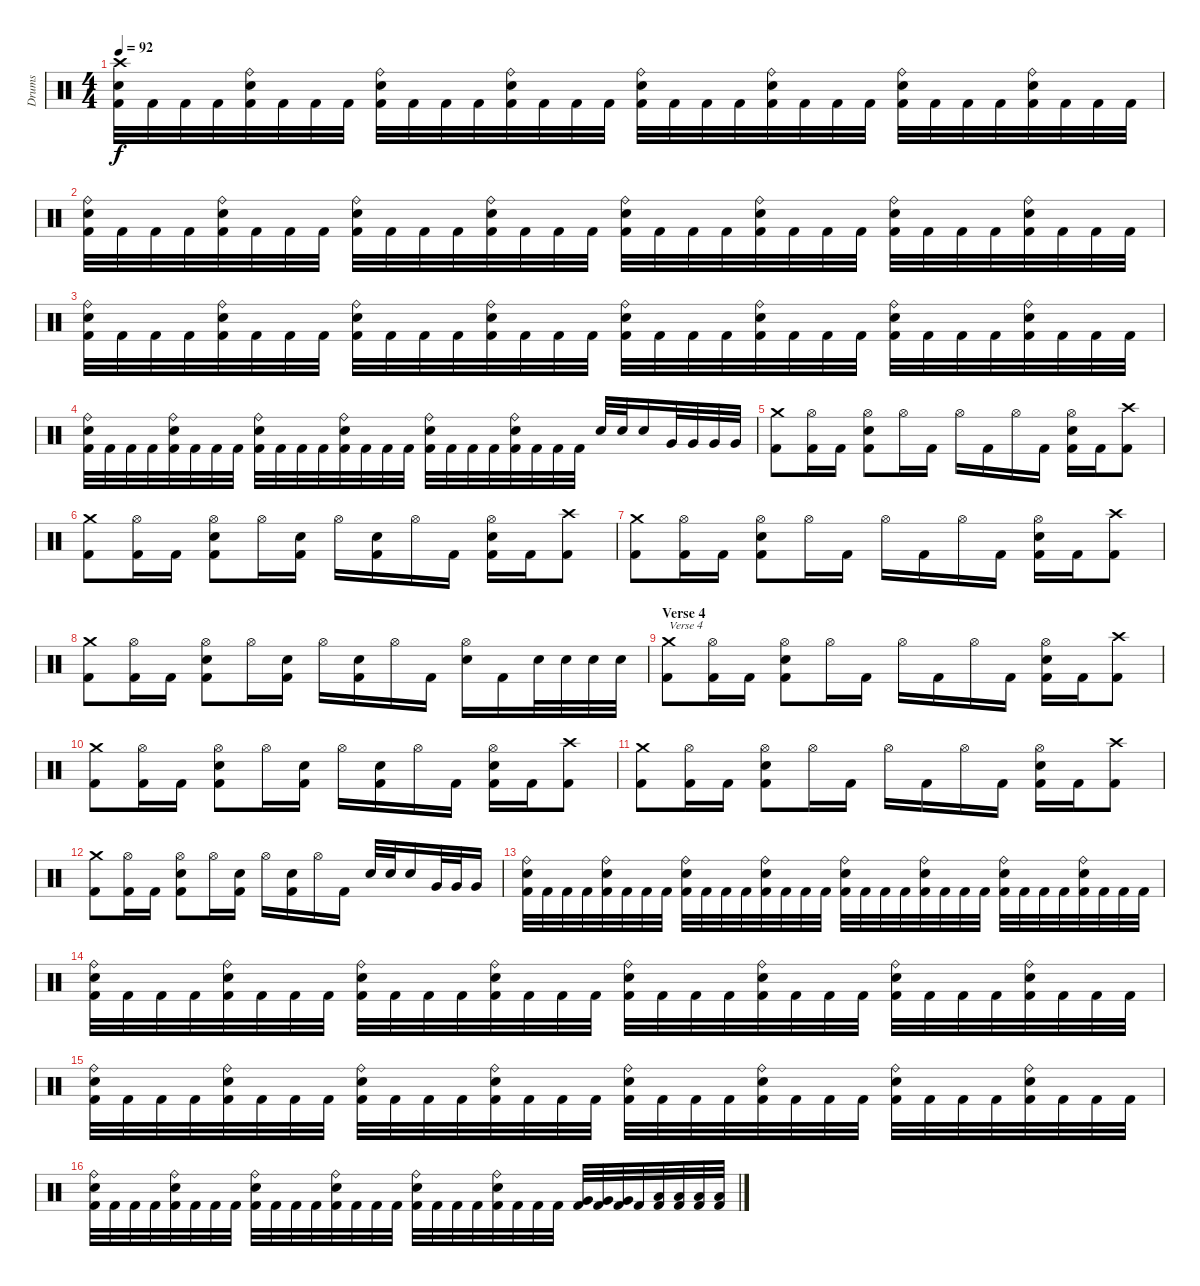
\track ("Drums" "Drums") {instrument percussion}
\staff {score}
\articulation defaults
\ts (4 4)
\tempo 92
\clef neutral
\ks c
("Crash high (hit)" "Electric Snare (hit)" "Kick (hit) 2").32{dy f} "Kick (hit) 2".32 "Kick (hit) 2".32 "Kick (hit) 2".32 ("Ride (bell)" "Electric Snare (hit)" "Kick (hit) 2").32 "Kick (hit) 2".32 "Kick (hit) 2".32 "Kick (hit) 2".32 ("Ride (bell)" "Electric Snare (hit)" "Kick (hit) 2").32 "Kick (hit) 2".32 "Kick (hit) 2".32 "Kick (hit) 2".32 ("Ride (bell)" "Electric Snare (hit)" "Kick (hit) 2").32 "Kick (hit) 2".32 "Kick (hit) 2".32 "Kick (hit) 2".32 ("Ride (bell)" "Electric Snare (hit)" "Kick (hit) 2").32 "Kick (hit) 2".32 "Kick (hit) 2".32 "Kick (hit) 2".32 ("Ride (bell)" "Electric Snare (hit)" "Kick (hit) 2").32 "Kick (hit) 2".32 "Kick (hit) 2".32 "Kick (hit) 2".32 ("Ride (bell)" "Electric Snare (hit)" "Kick (hit) 2").32 "Kick (hit) 2".32 "Kick (hit) 2".32 "Kick (hit) 2".32 ("Ride (bell)" "Electric Snare (hit)" "Kick (hit) 2").32 "Kick (hit) 2".32 "Kick (hit) 2".32 "Kick (hit) 2".32 |
("Ride (bell)" "Electric Snare (hit)" "Kick (hit) 2").32 "Kick (hit) 2".32 "Kick (hit) 2".32 "Kick (hit) 2".32 ("Ride (bell)" "Electric Snare (hit)" "Kick (hit) 2").32 "Kick (hit) 2".32 "Kick (hit) 2".32 "Kick (hit) 2".32 ("Ride (bell)" "Electric Snare (hit)" "Kick (hit) 2").32 "Kick (hit) 2".32 "Kick (hit) 2".32 "Kick (hit) 2".32 ("Ride (bell)" "Electric Snare (hit)" "Kick (hit) 2").32 "Kick (hit) 2".32 "Kick (hit) 2".32 "Kick (hit) 2".32 ("Ride (bell)" "Electric Snare (hit)" "Kick (hit) 2").32 "Kick (hit) 2".32 "Kick (hit) 2".32 "Kick (hit) 2".32 ("Ride (bell)" "Electric Snare (hit)" "Kick (hit) 2").32 "Kick (hit) 2".32 "Kick (hit) 2".32 "Kick (hit) 2".32 ("Ride (bell)" "Electric Snare (hit)" "Kick (hit) 2").32 "Kick (hit) 2".32 "Kick (hit) 2".32 "Kick (hit) 2".32 ("Ride (bell)" "Electric Snare (hit)" "Kick (hit) 2").32 "Kick (hit) 2".32 "Kick (hit) 2".32 "Kick (hit) 2".32 |
("Ride (bell)" "Electric Snare (hit)" "Kick (hit) 2").32 "Kick (hit) 2".32 "Kick (hit) 2".32 "Kick (hit) 2".32 ("Ride (bell)" "Electric Snare (hit)" "Kick (hit) 2").32 "Kick (hit) 2".32 "Kick (hit) 2".32 "Kick (hit) 2".32 ("Ride (bell)" "Electric Snare (hit)" "Kick (hit) 2").32 "Kick (hit) 2".32 "Kick (hit) 2".32 "Kick (hit) 2".32 ("Ride (bell)" "Electric Snare (hit)" "Kick (hit) 2").32 "Kick (hit) 2".32 "Kick (hit) 2".32 "Kick (hit) 2".32 ("Ride (bell)" "Electric Snare (hit)" "Kick (hit) 2").32 "Kick (hit) 2".32 "Kick (hit) 2".32 "Kick (hit) 2".32 ("Ride (bell)" "Electric Snare (hit)" "Kick (hit) 2").32 "Kick (hit) 2".32 "Kick (hit) 2".32 "Kick (hit) 2".32 ("Ride (bell)" "Electric Snare (hit)" "Kick (hit) 2").32 "Kick (hit) 2".32 "Kick (hit) 2".32 "Kick (hit) 2".32 ("Ride (bell)" "Electric Snare (hit)" "Kick (hit) 2").32 "Kick (hit) 2".32 "Kick (hit) 2".32 "Kick (hit) 2".32 |
("Ride (bell)" "Electric Snare (hit)" "Kick (hit) 2").32 "Kick (hit) 2".32 "Kick (hit) 2".32 "Kick (hit) 2".32 ("Ride (bell)" "Electric Snare (hit)" "Kick (hit) 2").32 "Kick (hit) 2".32 "Kick (hit) 2".32 "Kick (hit) 2".32 ("Ride (bell)" "Electric Snare (hit)" "Kick (hit) 2").32 "Kick (hit) 2".32 "Kick (hit) 2".32 "Kick (hit) 2".32 ("Ride (bell)" "Electric Snare (hit)" "Kick (hit) 2").32 "Kick (hit) 2".32 "Kick (hit) 2".32 "Kick (hit) 2".32 ("Ride (bell)" "Electric Snare (hit)" "Kick (hit) 2").32 "Kick (hit) 2".32 "Kick (hit) 2".32 "Kick (hit) 2".32 ("Ride (bell)" "Electric Snare (hit)" "Kick (hit) 2").32 "Kick (hit) 2".32 "Kick (hit) 2".32 "Kick (hit) 2".32 "Electric Snare (hit)".32 "Electric Snare (hit)".32 "Electric Snare (hit)".16 "Very Low Tom (hit)".32 "Very Low Tom (hit)".32 "Very Low Tom (hit)".32 "Very Low Tom (hit)".32 |
("Crash medium (hit)" "Kick (hit) 2").8 ("Hi-Hat (open)" "Kick (hit) 2").16 "Kick (hit) 2".16 ("Hi-Hat (open)" "Electric Snare (hit)" "Kick (hit) 2").8 "Hi-Hat (open)".16 "Kick (hit) 2".16 "Hi-Hat (open)".16 "Kick (hit) 2".16 "Hi-Hat (open)".16 "Kick (hit) 2".16 ("Hi-Hat (open)" "Electric Snare (hit)" "Kick (hit) 2").16 "Kick (hit) 2".16 ("Crash high (hit)" "Kick (hit) 2").8 |
("Crash medium (hit)" "Kick (hit) 2").8 ("Hi-Hat (open)" "Kick (hit) 2").16 "Kick (hit) 2".16 ("Hi-Hat (open)" "Electric Snare (hit)" "Kick (hit) 2").8 "Hi-Hat (open)".16 ("Electric Snare (hit)" "Kick (hit) 2").16 "Hi-Hat (open)".16 ("Electric Snare (hit)" "Kick (hit) 2").16 "Hi-Hat (open)".16 "Kick (hit) 2".16 ("Hi-Hat (open)" "Electric Snare (hit)" "Kick (hit) 2").16 "Kick (hit) 2".16 ("Crash high (hit)" "Kick (hit) 2").8 |
("Crash medium (hit)" "Kick (hit) 2").8 ("Hi-Hat (open)" "Kick (hit) 2").16 "Kick (hit) 2".16 ("Hi-Hat (open)" "Electric Snare (hit)" "Kick (hit) 2").8 "Hi-Hat (open)".16 "Kick (hit) 2".16 "Hi-Hat (open)".16 "Kick (hit) 2".16 "Hi-Hat (open)".16 "Kick (hit) 2".16 ("Hi-Hat (open)" "Electric Snare (hit)" "Kick (hit) 2").16 "Kick (hit) 2".16 ("Crash high (hit)" "Kick (hit) 2").8 |
("Crash medium (hit)" "Kick (hit) 2").8 ("Hi-Hat (open)" "Kick (hit) 2").16 "Kick (hit) 2".16 ("Hi-Hat (open)" "Electric Snare (hit)" "Kick (hit) 2").8 "Hi-Hat (open)".16 ("Electric Snare (hit)" "Kick (hit) 2").16 "Hi-Hat (open)".16 ("Electric Snare (hit)" "Kick (hit) 2").16 "Hi-Hat (open)".16 "Kick (hit) 2".16 ("Hi-Hat (open)" "Electric Snare (hit)").16 "Kick (hit) 2".16 "Electric Snare (hit)".32 "Electric Snare (hit)".32 "Electric Snare (hit)".32 "Electric Snare (hit)".32 |
\section ("" "Verse 4")
("Crash medium (hit)" "Kick (hit) 2").8{txt "Verse 4"} ("Hi-Hat (open)" "Kick (hit) 2").16 "Kick (hit) 2".16 ("Hi-Hat (open)" "Electric Snare (hit)" "Kick (hit) 2").8 "Hi-Hat (open)".16 "Kick (hit) 2".16 "Hi-Hat (open)".16 "Kick (hit) 2".16 "Hi-Hat (open)".16 "Kick (hit) 2".16 ("Hi-Hat (open)" "Electric Snare (hit)" "Kick (hit) 2").16 "Kick (hit) 2".16 ("Crash high (hit)" "Kick (hit) 2").8 |
("Crash medium (hit)" "Kick (hit) 2").8 ("Hi-Hat (open)" "Kick (hit) 2").16 "Kick (hit) 2".16 ("Hi-Hat (open)" "Electric Snare (hit)" "Kick (hit) 2").8 "Hi-Hat (open)".16 ("Electric Snare (hit)" "Kick (hit) 2").16 "Hi-Hat (open)".16 ("Electric Snare (hit)" "Kick (hit) 2").16 "Hi-Hat (open)".16 "Kick (hit) 2".16 ("Hi-Hat (open)" "Electric Snare (hit)" "Kick (hit) 2").16 "Kick (hit) 2".16 ("Crash high (hit)" "Kick (hit) 2").8 |
("Crash medium (hit)" "Kick (hit) 2").8 ("Hi-Hat (open)" "Kick (hit) 2").16 "Kick (hit) 2".16 ("Hi-Hat (open)" "Electric Snare (hit)" "Kick (hit) 2").8 "Hi-Hat (open)".16 "Kick (hit) 2".16 "Hi-Hat (open)".16 "Kick (hit) 2".16 "Hi-Hat (open)".16 "Kick (hit) 2".16 ("Hi-Hat (open)" "Electric Snare (hit)" "Kick (hit) 2").16 "Kick (hit) 2".16 ("Crash high (hit)" "Kick (hit) 2").8 |
("Crash medium (hit)" "Kick (hit) 2").8 ("Hi-Hat (open)" "Kick (hit) 2").16 "Kick (hit) 2".16 ("Hi-Hat (open)" "Electric Snare (hit)" "Kick (hit) 2").8 "Hi-Hat (open)".16 ("Electric Snare (hit)" "Kick (hit) 2").16 "Hi-Hat (open)".16 ("Electric Snare (hit)" "Kick (hit) 2").16 "Hi-Hat (open)".16 "Kick (hit) 2".16 "Electric Snare (hit)".32 "Electric Snare (hit)".32 "Electric Snare (hit)".16 "Very Low Tom (hit)".32 "Very Low Tom (hit)".32 "Very Low Tom (hit)".16 |
("Ride (bell)" "Electric Snare (hit)" "Kick (hit) 2").32 "Kick (hit) 2".32 "Kick (hit) 2".32 "Kick (hit) 2".32 ("Ride (bell)" "Electric Snare (hit)" "Kick (hit) 2").32 "Kick (hit) 2".32 "Kick (hit) 2".32 "Kick (hit) 2".32 ("Ride (bell)" "Electric Snare (hit)" "Kick (hit) 2").32 "Kick (hit) 2".32 "Kick (hit) 2".32 "Kick (hit) 2".32 ("Ride (bell)" "Electric Snare (hit)" "Kick (hit) 2").32 "Kick (hit) 2".32 "Kick (hit) 2".32 "Kick (hit) 2".32 ("Ride (bell)" "Electric Snare (hit)" "Kick (hit) 2").32 "Kick (hit) 2".32 "Kick (hit) 2".32 "Kick (hit) 2".32 ("Ride (bell)" "Electric Snare (hit)" "Kick (hit) 2").32 "Kick (hit) 2".32 "Kick (hit) 2".32 "Kick (hit) 2".32 ("Ride (bell)" "Electric Snare (hit)" "Kick (hit) 2").32 "Kick (hit) 2".32 "Kick (hit) 2".32 "Kick (hit) 2".32 ("Ride (bell)" "Electric Snare (hit)" "Kick (hit) 2").32 "Kick (hit) 2".32 "Kick (hit) 2".32 "Kick (hit) 2".32 |
("Ride (bell)" "Electric Snare (hit)" "Kick (hit) 2").32 "Kick (hit) 2".32 "Kick (hit) 2".32 "Kick (hit) 2".32 ("Ride (bell)" "Electric Snare (hit)" "Kick (hit) 2").32 "Kick (hit) 2".32 "Kick (hit) 2".32 "Kick (hit) 2".32 ("Ride (bell)" "Electric Snare (hit)" "Kick (hit) 2").32 "Kick (hit) 2".32 "Kick (hit) 2".32 "Kick (hit) 2".32 ("Ride (bell)" "Electric Snare (hit)" "Kick (hit) 2").32 "Kick (hit) 2".32 "Kick (hit) 2".32 "Kick (hit) 2".32 ("Ride (bell)" "Electric Snare (hit)" "Kick (hit) 2").32 "Kick (hit) 2".32 "Kick (hit) 2".32 "Kick (hit) 2".32 ("Ride (bell)" "Electric Snare (hit)" "Kick (hit) 2").32 "Kick (hit) 2".32 "Kick (hit) 2".32 "Kick (hit) 2".32 ("Ride (bell)" "Electric Snare (hit)" "Kick (hit) 2").32 "Kick (hit) 2".32 "Kick (hit) 2".32 "Kick (hit) 2".32 ("Ride (bell)" "Electric Snare (hit)" "Kick (hit) 2").32 "Kick (hit) 2".32 "Kick (hit) 2".32 "Kick (hit) 2".32 |
("Ride (bell)" "Electric Snare (hit)" "Kick (hit) 2").32 "Kick (hit) 2".32 "Kick (hit) 2".32 "Kick (hit) 2".32 ("Ride (bell)" "Electric Snare (hit)" "Kick (hit) 2").32 "Kick (hit) 2".32 "Kick (hit) 2".32 "Kick (hit) 2".32 ("Ride (bell)" "Electric Snare (hit)" "Kick (hit) 2").32 "Kick (hit) 2".32 "Kick (hit) 2".32 "Kick (hit) 2".32 ("Ride (bell)" "Electric Snare (hit)" "Kick (hit) 2").32 "Kick (hit) 2".32 "Kick (hit) 2".32 "Kick (hit) 2".32 ("Ride (bell)" "Electric Snare (hit)" "Kick (hit) 2").32 "Kick (hit) 2".32 "Kick (hit) 2".32 "Kick (hit) 2".32 ("Ride (bell)" "Electric Snare (hit)" "Kick (hit) 2").32 "Kick (hit) 2".32 "Kick (hit) 2".32 "Kick (hit) 2".32 ("Ride (bell)" "Electric Snare (hit)" "Kick (hit) 2").32 "Kick (hit) 2".32 "Kick (hit) 2".32 "Kick (hit) 2".32 ("Ride (bell)" "Electric Snare (hit)" "Kick (hit) 2").32 "Kick (hit) 2".32 "Kick (hit) 2".32 "Kick (hit) 2".32 |
("Ride (bell)" "Electric Snare (hit)" "Kick (hit) 2").32 "Kick (hit) 2".32 "Kick (hit) 2".32 "Kick (hit) 2".32 ("Ride (bell)" "Electric Snare (hit)" "Kick (hit) 2").32 "Kick (hit) 2".32 "Kick (hit) 2".32 "Kick (hit) 2".32 ("Ride (bell)" "Electric Snare (hit)" "Kick (hit) 2").32 "Kick (hit) 2".32 "Kick (hit) 2".32 "Kick (hit) 2".32 ("Ride (bell)" "Electric Snare (hit)" "Kick (hit) 2").32 "Kick (hit) 2".32 "Kick (hit) 2".32 "Kick (hit) 2".32 ("Ride (bell)" "Electric Snare (hit)" "Kick (hit) 2").32 "Kick (hit) 2".32 "Kick (hit) 2".32 "Kick (hit) 2".32 ("Ride (bell)" "Electric Snare (hit)" "Kick (hit) 2").32 "Kick (hit) 2".32 "Kick (hit) 2".32 "Kick (hit) 2".32 ("Very Low Tom (hit)" "Kick (hit) 2").32 ("Very Low Tom (hit)" "Kick (hit) 2").32 ("Very Low Tom (hit)" "Kick (hit) 2").32 "Kick (hit) 2".32 ("Low Floor Tom (hit)" "Kick (hit) 2").32 ("Low Floor Tom (hit)" "Kick (hit) 2").32 ("Low Floor Tom (hit)" "Kick (hit) 2").32 ("Low Floor Tom (hit)" "Kick (hit) 2").32
